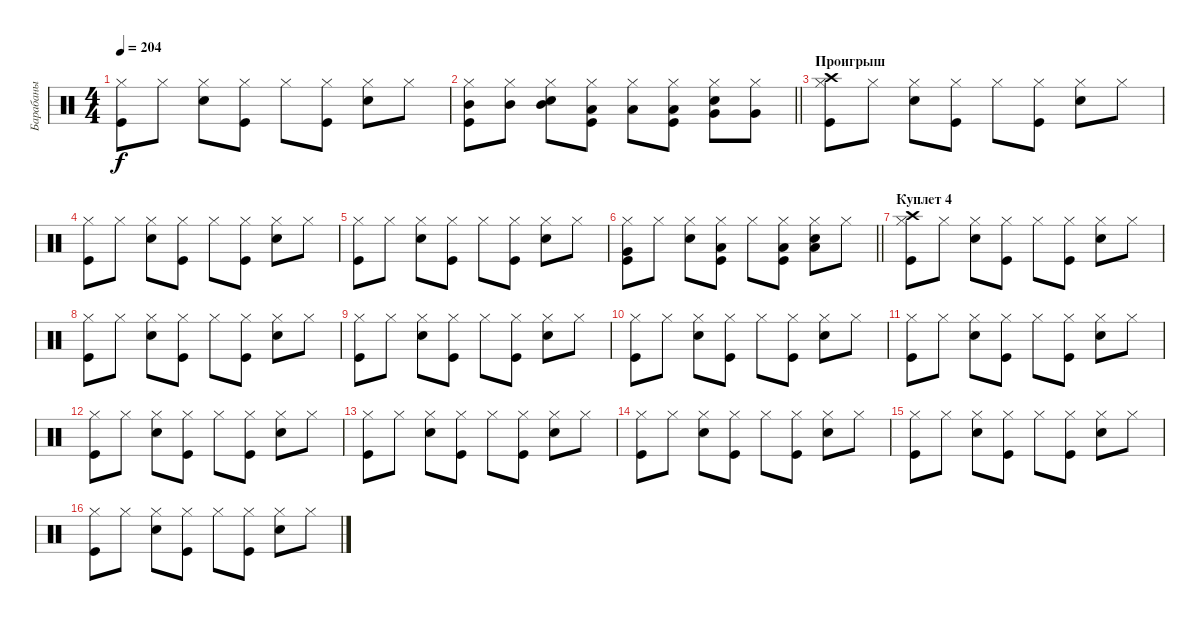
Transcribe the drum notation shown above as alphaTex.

\track ("Барабаны" "Барабаны") {instrument percussion}
\staff {score}
\articulation defaults
\ts (4 4)
\tempo 204
\clef neutral
\ks c
("Kick (hit)" "Hi-Hat (closed)").8{dy f} "Hi-Hat (closed)".8 ("Snare (hit) 2" "Hi-Hat (closed)").8 ("Kick (hit)" "Hi-Hat (closed)").8 "Hi-Hat (closed)".8 ("Kick (hit)" "Hi-Hat (closed)").8 ("Snare (hit) 2" "Hi-Hat (closed)").8 "Hi-Hat (closed)".8 |
\barLineRight lightlight
("Kick (hit)" "Hi-Hat (closed)" "Mid Tom (hit)").8 ("Hi-Hat (closed)" "Mid Tom (hit)").8 ("Snare (hit) 2" "Hi-Hat (closed)" "Mid Tom (hit)").8 ("Kick (hit)" "Hi-Hat (closed)" "Low Tom (hit)").8 ("Hi-Hat (closed)" "Low Tom (hit)").8 ("Kick (hit)" "Hi-Hat (closed)" "Low Tom (hit)").8 ("Snare (hit) 2" "Hi-Hat (closed)" "Very Low Tom (hit)").8 ("Hi-Hat (closed)" "Very Low Tom (hit)").8 |
\section ("" "Проигрыш")
("Kick (hit)" "Hi-Hat (closed)" "Crash high (hit)").8 "Hi-Hat (closed)".8 ("Snare (hit) 2" "Hi-Hat (closed)").8 ("Kick (hit)" "Hi-Hat (closed)").8 "Hi-Hat (closed)".8 ("Kick (hit)" "Hi-Hat (closed)").8 ("Snare (hit) 2" "Hi-Hat (closed)").8 "Hi-Hat (closed)".8 |
("Kick (hit)" "Hi-Hat (closed)").8 "Hi-Hat (closed)".8 ("Snare (hit) 2" "Hi-Hat (closed)").8 ("Kick (hit)" "Hi-Hat (closed)").8 "Hi-Hat (closed)".8 ("Kick (hit)" "Hi-Hat (closed)").8 ("Snare (hit) 2" "Hi-Hat (closed)").8 "Hi-Hat (closed)".8 |
("Kick (hit)" "Hi-Hat (closed)").8 "Hi-Hat (closed)".8 ("Snare (hit) 2" "Hi-Hat (closed)").8 ("Kick (hit)" "Hi-Hat (closed)").8 "Hi-Hat (closed)".8 ("Kick (hit)" "Hi-Hat (closed)").8 ("Snare (hit) 2" "Hi-Hat (closed)").8 "Hi-Hat (closed)".8 |
\barLineRight lightlight
("Kick (hit)" "Hi-Hat (closed)" "Very Low Tom (hit)").8 "Hi-Hat (closed)".8 ("Snare (hit) 2" "Hi-Hat (closed)").8 ("Kick (hit)" "Hi-Hat (closed)" "Low Tom (hit)").8 "Hi-Hat (closed)".8 ("Kick (hit)" "Hi-Hat (closed)" "Low Tom (hit)").8 ("Snare (hit) 2" "Hi-Hat (closed)" "Low Tom (hit)").8 "Hi-Hat (closed)".8 |
\section ("" "Куплет 4")
("Kick (hit)" "Hi-Hat (closed)" "Crash high (hit)").8 "Hi-Hat (closed)".8 ("Snare (hit) 2" "Hi-Hat (closed)").8 ("Kick (hit)" "Hi-Hat (closed)").8 "Hi-Hat (closed)".8 ("Kick (hit)" "Hi-Hat (closed)").8 ("Snare (hit) 2" "Hi-Hat (closed)").8 "Hi-Hat (closed)".8 |
("Kick (hit)" "Hi-Hat (closed)").8 "Hi-Hat (closed)".8 ("Snare (hit) 2" "Hi-Hat (closed)").8 ("Kick (hit)" "Hi-Hat (closed)").8 "Hi-Hat (closed)".8 ("Kick (hit)" "Hi-Hat (closed)").8 ("Snare (hit) 2" "Hi-Hat (closed)").8 "Hi-Hat (closed)".8 |
("Kick (hit)" "Hi-Hat (closed)").8 "Hi-Hat (closed)".8 ("Snare (hit) 2" "Hi-Hat (closed)").8 ("Kick (hit)" "Hi-Hat (closed)").8 "Hi-Hat (closed)".8 ("Kick (hit)" "Hi-Hat (closed)").8 ("Snare (hit) 2" "Hi-Hat (closed)").8 "Hi-Hat (closed)".8 |
("Kick (hit)" "Hi-Hat (closed)").8 "Hi-Hat (closed)".8 ("Snare (hit) 2" "Hi-Hat (closed)").8 ("Kick (hit)" "Hi-Hat (closed)").8 "Hi-Hat (closed)".8 ("Kick (hit)" "Hi-Hat (closed)").8 ("Snare (hit) 2" "Hi-Hat (closed)").8 "Hi-Hat (closed)".8 |
("Kick (hit)" "Hi-Hat (closed)").8 "Hi-Hat (closed)".8 ("Snare (hit) 2" "Hi-Hat (closed)").8 ("Kick (hit)" "Hi-Hat (closed)").8 "Hi-Hat (closed)".8 ("Kick (hit)" "Hi-Hat (closed)").8 ("Snare (hit) 2" "Hi-Hat (closed)").8 "Hi-Hat (closed)".8 |
("Kick (hit)" "Hi-Hat (closed)").8 "Hi-Hat (closed)".8 ("Snare (hit) 2" "Hi-Hat (closed)").8 ("Kick (hit)" "Hi-Hat (closed)").8 "Hi-Hat (closed)".8 ("Kick (hit)" "Hi-Hat (closed)").8 ("Snare (hit) 2" "Hi-Hat (closed)").8 "Hi-Hat (closed)".8 |
("Kick (hit)" "Hi-Hat (closed)").8 "Hi-Hat (closed)".8 ("Snare (hit) 2" "Hi-Hat (closed)").8 ("Kick (hit)" "Hi-Hat (closed)").8 "Hi-Hat (closed)".8 ("Kick (hit)" "Hi-Hat (closed)").8 ("Snare (hit) 2" "Hi-Hat (closed)").8 "Hi-Hat (closed)".8 |
("Kick (hit)" "Hi-Hat (closed)").8 "Hi-Hat (closed)".8 ("Snare (hit) 2" "Hi-Hat (closed)").8 ("Kick (hit)" "Hi-Hat (closed)").8 "Hi-Hat (closed)".8 ("Kick (hit)" "Hi-Hat (closed)").8 ("Snare (hit) 2" "Hi-Hat (closed)").8 "Hi-Hat (closed)".8 |
("Kick (hit)" "Hi-Hat (closed)").8 "Hi-Hat (closed)".8 ("Snare (hit) 2" "Hi-Hat (closed)").8 ("Kick (hit)" "Hi-Hat (closed)").8 "Hi-Hat (closed)".8 ("Kick (hit)" "Hi-Hat (closed)").8 ("Snare (hit) 2" "Hi-Hat (closed)").8 "Hi-Hat (closed)".8 |
("Kick (hit)" "Hi-Hat (closed)").8 "Hi-Hat (closed)".8 ("Snare (hit) 2" "Hi-Hat (closed)").8 ("Kick (hit)" "Hi-Hat (closed)").8 "Hi-Hat (closed)".8 ("Kick (hit)" "Hi-Hat (closed)").8 ("Snare (hit) 2" "Hi-Hat (closed)").8 "Hi-Hat (closed)".8
